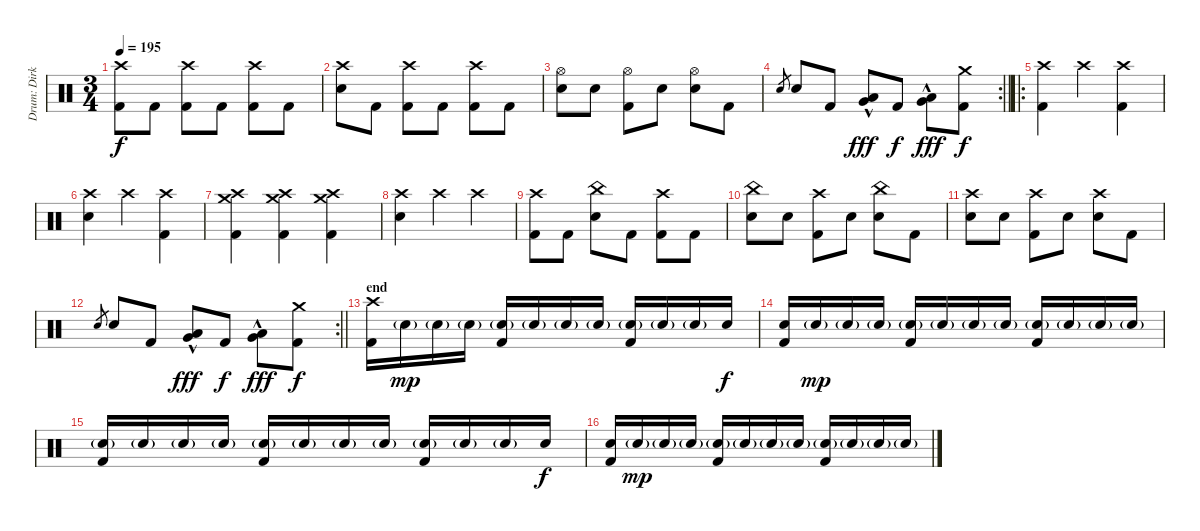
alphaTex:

\track ("Drum: Dirk" "Drum: Dirk") {instrument percussion}
\staff {score}
\articulation defaults
\ts (3 4)
\tempo 195
\clef neutral
\ks c
("Crash high (hit)" "Kick (hit) 2").8{dy f} "Kick (hit) 2".8 ("Crash high (hit)" "Kick (hit) 2").8 "Kick (hit) 2".8 ("Crash high (hit)" "Kick (hit) 2").8 "Kick (hit) 2".8 |
("Crash high (hit)" "Electric Snare (hit)").8 "Kick (hit) 2".8 ("Crash high (hit)" "Kick (hit) 2").8 "Kick (hit) 2".8 ("Crash high (hit)" "Kick (hit) 2").8 "Kick (hit) 2".8 |
("Hi-Hat (open)" "Electric Snare (hit)").8 "Electric Snare (hit)".8 ("Hi-Hat (open)" "Kick (hit) 2").8 "Electric Snare (hit)".8 ("Hi-Hat (open)" "Electric Snare (hit)").8 "Kick (hit) 2".8 |
\rc 2
\barLineRight lightlight "Electric Snare (hit)".8{gr} "Electric Snare (hit)".8 "Kick (hit) 2".8
("Low Tom (hit)"{hac} "Very Low Tom (hit)"{hac}).8{dy fff} "Kick (hit) 2".8{dy f} ("Low Tom (hit)"{hac} "Very Low Tom (hit)"{hac}).8{dy fff} ("Crash medium (hit)" "Kick (hit) 2").8{dy f} |
\ro
\section ("" "")
("Crash high (hit)" "Kick (hit) 2").4 "Crash high (hit)".4 ("Crash high (hit)" "Kick (hit) 2").4 |
("Crash high (hit)" "Electric Snare (hit)").4 "Crash high (hit)".4 ("Crash high (hit)" "Kick (hit) 2").4 |
("Crash high (hit)" "Crash medium (hit)" "Kick (hit) 2").4 ("Crash high (hit)" "Crash medium (hit)" "Kick (hit) 2").4 ("Crash high (hit)" "Crash medium (hit)" "Kick (hit) 2").4 |
("Crash high (hit)" "Electric Snare (hit)").4 "Crash high (hit)".4 "Crash high (hit)".4 |
("Crash high (hit)" "Kick (hit) 2").8 "Kick (hit) 2".8 ("China (hit)" "Electric Snare (hit)").8 "Kick (hit) 2".8 ("Crash high (hit)" "Kick (hit) 2").8 "Kick (hit) 2".8 |
("China (hit)" "Electric Snare (hit)").8 "Electric Snare (hit)".8 ("Crash high (hit)" "Kick (hit) 2").8 "Electric Snare (hit)".8 ("China (hit)" "Electric Snare (hit)").8 "Kick (hit) 2".8 |
("Crash high (hit)" "Electric Snare (hit)").8 "Electric Snare (hit)".8 ("Crash high (hit)" "Kick (hit) 2").8 "Electric Snare (hit)".8 ("Crash high (hit)" "Electric Snare (hit)").8 "Kick (hit) 2".8 |
\rc 2
\barLineRight lightlight "Electric Snare (hit)".8{gr} "Electric Snare (hit)".8 "Kick (hit) 2".8
("Low Tom (hit)"{hac} "Very Low Tom (hit)"{hac}).8{dy fff} "Kick (hit) 2".8{dy f} ("Low Tom (hit)"{hac} "Very Low Tom (hit)"{hac}).8{dy fff} ("Crash medium (hit)" "Kick (hit) 2").8{dy f} |
\section ("" "end")
("Crash high (hit)" "Kick (hit) 2").16 "Electric Snare (hit)"{g}.16{dy mp} "Electric Snare (hit)"{g}.16 "Electric Snare (hit)"{g}.16 ("Electric Snare (hit)"{g} "Kick (hit) 2").16 "Electric Snare (hit)"{g}.16 "Electric Snare (hit)"{g}.16 "Electric Snare (hit)"{g}.16 ("Electric Snare (hit)"{g} "Kick (hit) 2").16 "Electric Snare (hit)"{g}.16 "Electric Snare (hit)"{g}.16 "Electric Snare (hit)".16{dy f} |
("Electric Snare (hit)" "Kick (hit) 2").16 "Electric Snare (hit)"{g}.16{dy mp} "Electric Snare (hit)"{g}.16 "Electric Snare (hit)"{g}.16 ("Electric Snare (hit)"{g} "Kick (hit) 2").16 "Electric Snare (hit)"{g}.16 "Electric Snare (hit)"{g}.16 "Electric Snare (hit)"{g}.16 ("Electric Snare (hit)"{g} "Kick (hit) 2").16 "Electric Snare (hit)"{g}.16 "Electric Snare (hit)"{g}.16 "Electric Snare (hit)"{g}.16 |
("Electric Snare (hit)"{g} "Kick (hit) 2").16 "Electric Snare (hit)"{g}.16 "Electric Snare (hit)"{g}.16 "Electric Snare (hit)"{g}.16 ("Electric Snare (hit)"{g} "Kick (hit) 2").16 "Electric Snare (hit)"{g}.16 "Electric Snare (hit)"{g}.16 "Electric Snare (hit)"{g}.16 ("Electric Snare (hit)"{g} "Kick (hit) 2").16 "Electric Snare (hit)"{g}.16 "Electric Snare (hit)"{g}.16 "Electric Snare (hit)".16{dy f} |
("Electric Snare (hit)" "Kick (hit) 2").16 "Electric Snare (hit)"{g}.16{dy mp} "Electric Snare (hit)"{g}.16 "Electric Snare (hit)"{g}.16 ("Electric Snare (hit)"{g} "Kick (hit) 2").16 "Electric Snare (hit)"{g}.16 "Electric Snare (hit)"{g}.16 "Electric Snare (hit)"{g}.16 ("Electric Snare (hit)"{g} "Kick (hit) 2").16 "Electric Snare (hit)"{g}.16 "Electric Snare (hit)"{g}.16 "Electric Snare (hit)"{g}.16
